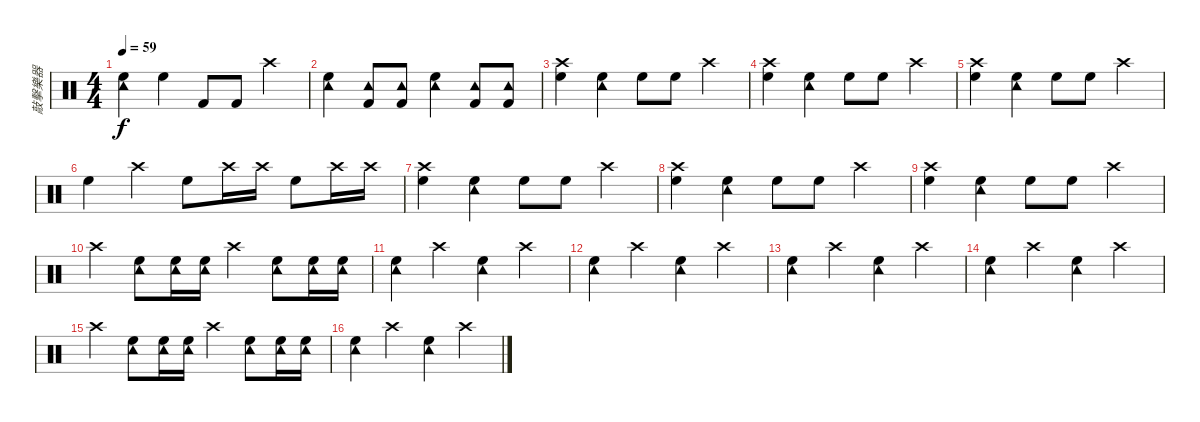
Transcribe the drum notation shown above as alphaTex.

\track ("敲擊樂器" "敲擊樂器") {instrument percussion}
\staff {score}
\articulation defaults
\ts (4 4)
\tempo 59
\clef neutral
\ks c
("High Floor Tom (hit)" "Tambourine (hit)").4{dy f} "High Floor Tom (hit)".4 "Kick (hit) 2".8 "Kick (hit) 2".8 "Crash high (hit)".4 |
("High Floor Tom (hit)" "Tambourine (hit)").4 ("Kick (hit) 2" "Tambourine (hit)").8 ("Kick (hit) 2" "Tambourine (hit)").8 ("High Floor Tom (hit)" "Tambourine (hit)").4 ("Kick (hit) 2" "Tambourine (hit)").8 ("Kick (hit) 2" "Tambourine (hit)").8 |
("High Floor Tom (hit)" "Crash high (hit)").4 ("High Floor Tom (hit)" "Tambourine (hit)").4 "High Floor Tom (hit)".8 "High Floor Tom (hit)".8 "Crash high (hit)".4 |
("High Floor Tom (hit)" "Crash high (hit)").4 ("High Floor Tom (hit)" "Tambourine (hit)").4 "High Floor Tom (hit)".8 "High Floor Tom (hit)".8 "Crash high (hit)".4 |
("High Floor Tom (hit)" "Crash high (hit)").4 ("High Floor Tom (hit)" "Tambourine (hit)").4 "High Floor Tom (hit)".8 "High Floor Tom (hit)".8 "Crash high (hit)".4 |
"High Floor Tom (hit)".4 "Crash high (hit)".4 "High Floor Tom (hit)".8 "Crash high (hit)".16 "Crash high (hit)".16 "High Floor Tom (hit)".8 "Crash high (hit)".16 "Crash high (hit)".16 |
("High Floor Tom (hit)" "Crash high (hit)").4 ("High Floor Tom (hit)" "Tambourine (hit)").4 "High Floor Tom (hit)".8 "High Floor Tom (hit)".8 "Crash high (hit)".4 |
("High Floor Tom (hit)" "Crash high (hit)").4 ("High Floor Tom (hit)" "Tambourine (hit)").4 "High Floor Tom (hit)".8 "High Floor Tom (hit)".8 "Crash high (hit)".4 |
("High Floor Tom (hit)" "Crash high (hit)").4 ("High Floor Tom (hit)" "Tambourine (hit)").4 "High Floor Tom (hit)".8 "High Floor Tom (hit)".8 "Crash high (hit)".4 |
"Crash high (hit)".4 ("High Floor Tom (hit)" "Tambourine (hit)").8 ("High Floor Tom (hit)" "Tambourine (hit)").16 ("High Floor Tom (hit)" "Tambourine (hit)").16 "Crash high (hit)".4 ("High Floor Tom (hit)" "Tambourine (hit)").8 ("High Floor Tom (hit)" "Tambourine (hit)").16 ("High Floor Tom (hit)" "Tambourine (hit)").16 |
("High Floor Tom (hit)" "Tambourine (hit)").4 "Crash high (hit)".4 ("High Floor Tom (hit)" "Tambourine (hit)").4 "Crash high (hit)".4 |
("High Floor Tom (hit)" "Tambourine (hit)").4 "Crash high (hit)".4 ("High Floor Tom (hit)" "Tambourine (hit)").4 "Crash high (hit)".4 |
("High Floor Tom (hit)" "Tambourine (hit)").4 "Crash high (hit)".4 ("High Floor Tom (hit)" "Tambourine (hit)").4 "Crash high (hit)".4 |
("High Floor Tom (hit)" "Tambourine (hit)").4 "Crash high (hit)".4 ("High Floor Tom (hit)" "Tambourine (hit)").4 "Crash high (hit)".4 |
"Crash high (hit)".4 ("High Floor Tom (hit)" "Tambourine (hit)").8 ("High Floor Tom (hit)" "Tambourine (hit)").16 ("High Floor Tom (hit)" "Tambourine (hit)").16 "Crash high (hit)".4 ("High Floor Tom (hit)" "Tambourine (hit)").8 ("High Floor Tom (hit)" "Tambourine (hit)").16 ("High Floor Tom (hit)" "Tambourine (hit)").16 |
("High Floor Tom (hit)" "Tambourine (hit)").4 "Crash high (hit)".4 ("High Floor Tom (hit)" "Tambourine (hit)").4 "Crash high (hit)".4
